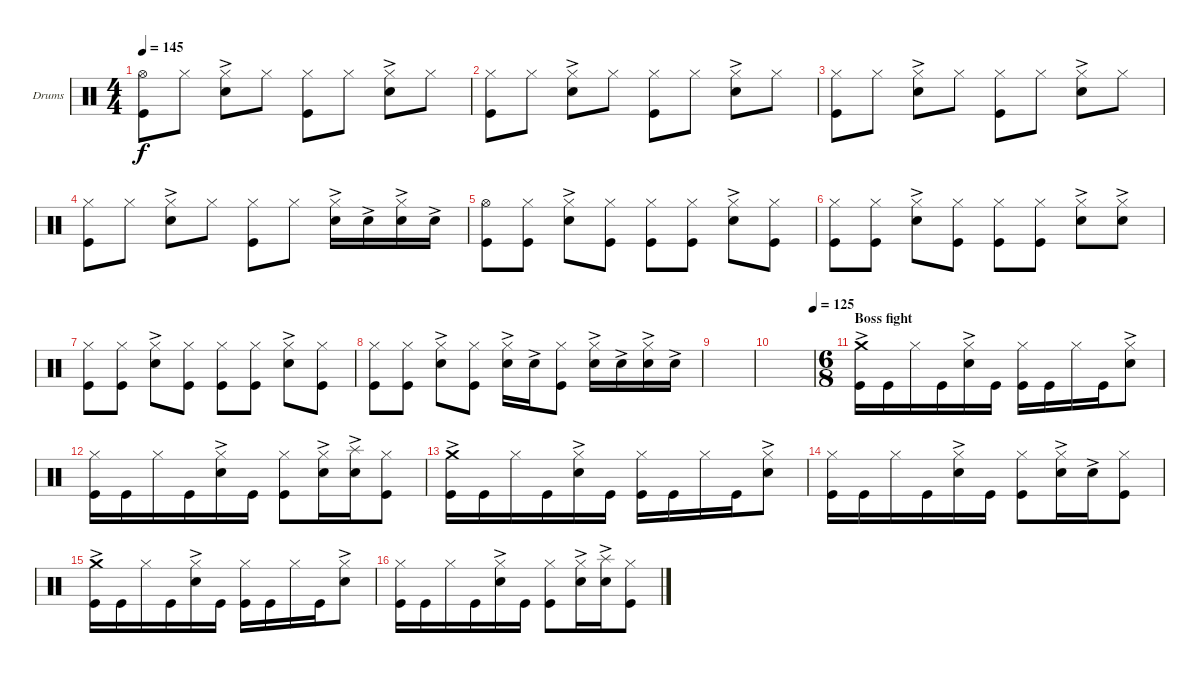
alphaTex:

\defaultSystemsLayout 4
\bracketExtendMode groupsimilarinstruments
\firstSystemTrackNameOrientation horizontal
\otherSystemsTrackNameOrientation horizontal
\track ("Drumkit" "Drums") {instrument percussion}
\staff {score}
\articulation defaults
\ts (4 4)
\tempo 145
\clef neutral
\ks c
("Hi-Hat (open)" "Kick (hit)").8{dy f} "Hi-Hat (closed)".8 ("Hi-Hat (closed)" "Snare (hit) 2"{ac}).8 "Hi-Hat (closed)".8 ("Hi-Hat (closed)" "Kick (hit)").8 "Hi-Hat (closed)".8 ("Hi-Hat (closed)" "Snare (hit) 2"{ac}).8 "Hi-Hat (closed)".8 |
("Hi-Hat (closed)" "Kick (hit)").8 "Hi-Hat (closed)".8 ("Hi-Hat (closed)" "Snare (hit) 2"{ac}).8 "Hi-Hat (closed)".8 ("Hi-Hat (closed)" "Kick (hit)").8 "Hi-Hat (closed)".8 ("Hi-Hat (closed)" "Snare (hit) 2"{ac}).8 "Hi-Hat (closed)".8 |
("Hi-Hat (closed)" "Kick (hit)").8 "Hi-Hat (closed)".8 ("Hi-Hat (closed)" "Snare (hit) 2"{ac}).8 "Hi-Hat (closed)".8 ("Hi-Hat (closed)" "Kick (hit)").8 "Hi-Hat (closed)".8 ("Hi-Hat (closed)" "Snare (hit) 2"{ac}).8 "Hi-Hat (closed)".8 |
("Hi-Hat (closed)" "Kick (hit)").8 "Hi-Hat (closed)".8 ("Hi-Hat (closed)" "Snare (hit) 2"{ac}).8 "Hi-Hat (closed)".8 ("Hi-Hat (closed)" "Kick (hit)").8 "Hi-Hat (closed)".8 ("Hi-Hat (closed)" "Snare (hit) 2"{ac}).16 "Snare (hit) 2"{ac}.16 ("Hi-Hat (closed)" "Snare (hit) 2"{ac}).16 "Snare (hit) 2"{ac}.16 |
("Hi-Hat (open)" "Kick (hit)").8 ("Hi-Hat (closed)" "Kick (hit)").8 ("Hi-Hat (closed)" "Snare (hit) 2"{ac}).8 ("Hi-Hat (closed)" "Kick (hit)").8 ("Hi-Hat (closed)" "Kick (hit)").8 ("Hi-Hat (closed)" "Kick (hit)").8 ("Hi-Hat (closed)" "Snare (hit) 2"{ac}).8 ("Hi-Hat (closed)" "Kick (hit)").8 |
("Hi-Hat (closed)" "Kick (hit)").8 ("Hi-Hat (closed)" "Kick (hit)").8 ("Hi-Hat (closed)" "Snare (hit) 2"{ac}).8 ("Hi-Hat (closed)" "Kick (hit)").8 ("Hi-Hat (closed)" "Kick (hit)").8 ("Hi-Hat (closed)" "Kick (hit)").8 ("Hi-Hat (closed)" "Snare (hit) 2"{ac}).8 ("Hi-Hat (closed)" "Snare (hit) 2"{ac}).8 |
("Hi-Hat (closed)" "Kick (hit)").8 ("Hi-Hat (closed)" "Kick (hit)").8 ("Hi-Hat (closed)" "Snare (hit) 2"{ac}).8 ("Hi-Hat (closed)" "Kick (hit)").8 ("Hi-Hat (closed)" "Kick (hit)").8 ("Hi-Hat (closed)" "Kick (hit)").8 ("Hi-Hat (closed)" "Snare (hit) 2"{ac}).8 ("Hi-Hat (closed)" "Kick (hit)").8 |
("Hi-Hat (closed)" "Kick (hit)").8 ("Hi-Hat (closed)" "Kick (hit)").8 ("Hi-Hat (closed)" "Snare (hit) 2"{ac}).8 ("Hi-Hat (closed)" "Kick (hit)").8 ("Snare (hit) 2"{ac} "Hi-Hat (closed)").16 "Snare (hit) 2"{ac}.16 ("Kick (hit)" "Hi-Hat (closed)").8 ("Snare (hit) 2"{ac} "Hi-Hat (closed)").16 "Snare (hit) 2"{ac}.16 ("Snare (hit) 2"{ac} "Hi-Hat (closed)").16 "Snare (hit) 2"{ac}.16 |
|
\tempo (125 1)
|
\ts (6 8)
\section ("" "Boss fight")
("Kick (hit)" "Crash medium (hit)"{ac}).16 "Kick (hit)".16 "Hi-Hat (closed)".16 "Kick (hit)".16 ("Snare (hit) 2"{ac} "Hi-Hat (closed)").16 "Kick (hit)".16 ("Hi-Hat (closed)" "Kick (hit)").16 "Kick (hit)".16 "Hi-Hat (closed)".16 "Kick (hit)".16 ("Hi-Hat (closed)" "Snare (hit) 2"{ac}).8 |
("Kick (hit)" "Hi-Hat (closed)").16 "Kick (hit)".16 "Hi-Hat (closed)".16 "Kick (hit)".16 ("Snare (hit) 2"{ac} "Hi-Hat (closed)").16 "Kick (hit)".16 ("Hi-Hat (closed)" "Kick (hit)").8 ("Hi-Hat (closed)" "Snare (hit) 2"{ac}).16 ("Snare (hit) 2"{ac} "Splash (hit)").16 ("Kick (hit)" "Hi-Hat (closed)").8 |
("Kick (hit)" "Crash medium (hit)"{ac}).16 "Kick (hit)".16 "Hi-Hat (closed)".16 "Kick (hit)".16 ("Snare (hit) 2"{ac} "Hi-Hat (closed)").16 "Kick (hit)".16 ("Hi-Hat (closed)" "Kick (hit)").16 "Kick (hit)".16 "Hi-Hat (closed)".16 "Kick (hit)".16 ("Hi-Hat (closed)" "Snare (hit) 2"{ac}).8 |
("Kick (hit)" "Hi-Hat (closed)").16 "Kick (hit)".16 "Hi-Hat (closed)".16 "Kick (hit)".16 ("Snare (hit) 2"{ac} "Hi-Hat (closed)").16 "Kick (hit)".16 ("Hi-Hat (closed)" "Kick (hit)").8 ("Hi-Hat (closed)" "Snare (hit) 2"{ac}).16 "Snare (hit) 2"{ac}.16 ("Kick (hit)" "Hi-Hat (closed)").8 |
("Kick (hit)" "Crash medium (hit)"{ac}).16 "Kick (hit)".16 "Hi-Hat (closed)".16 "Kick (hit)".16 ("Snare (hit) 2"{ac} "Hi-Hat (closed)").16 "Kick (hit)".16 ("Hi-Hat (closed)" "Kick (hit)").16 "Kick (hit)".16 "Hi-Hat (closed)".16 "Kick (hit)".16 ("Hi-Hat (closed)" "Snare (hit) 2"{ac}).8 |
("Kick (hit)" "Hi-Hat (closed)").16 "Kick (hit)".16 "Hi-Hat (closed)".16 "Kick (hit)".16 ("Snare (hit) 2"{ac} "Hi-Hat (closed)").16 "Kick (hit)".16 ("Hi-Hat (closed)" "Kick (hit)").8 ("Snare (hit) 2"{ac} "Hi-Hat (closed)").16 ("Snare (hit) 2"{ac} "Splash (hit)").16 ("Kick (hit)" "Hi-Hat (closed)").8
